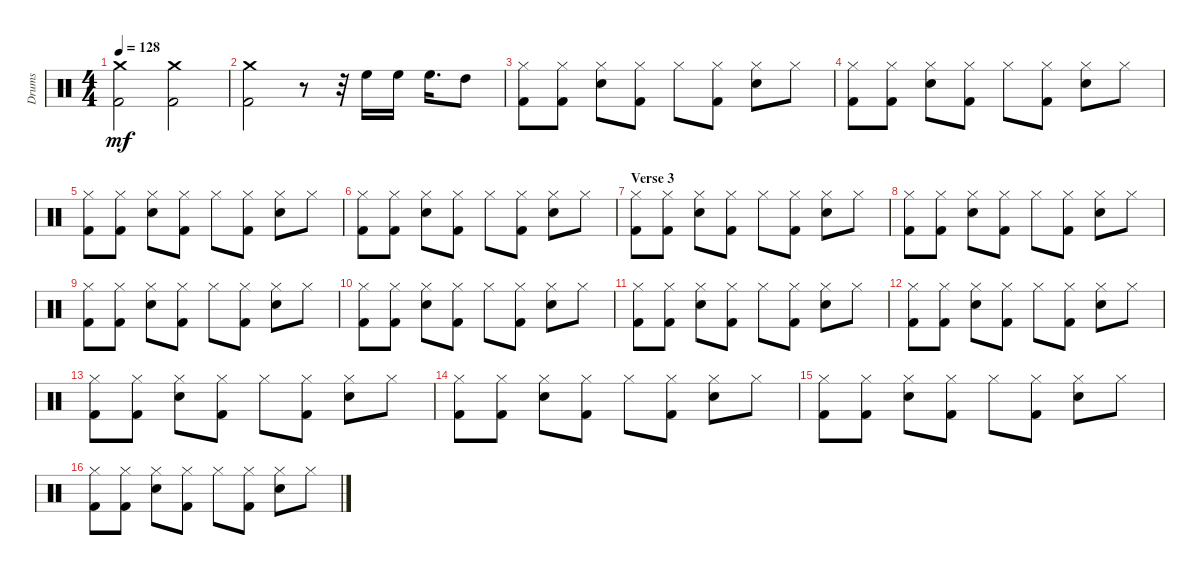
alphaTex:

\track ("Drums" "Drums") {instrument percussion}
\staff {score}
\articulation defaults
\ts (4 4)
\tempo 128
\clef neutral
\ks c
("Crash medium (hit)" "Kick (hit) 2").2{dy mf} ("Crash medium (hit)" "Kick (hit) 2").2 |
("Crash medium (hit)" "Kick (hit) 2").2 r.8 r.32 "High Floor Tom (hit)".16 "High Floor Tom (hit)".16 "High Floor Tom (hit)".16{d} "High Tom (hit)".8 |
("Hi-Hat (closed)" "Kick (hit) 2").8 ("Hi-Hat (closed)" "Kick (hit) 2").8 ("Hi-Hat (closed)" "Snare (hit) 2").8 ("Hi-Hat (closed)" "Kick (hit) 2").8 "Hi-Hat (closed)".8 ("Hi-Hat (closed)" "Kick (hit) 2").8 ("Hi-Hat (closed)" "Snare (hit) 2").8 "Hi-Hat (closed)".8 |
("Hi-Hat (closed)" "Kick (hit) 2").8 ("Hi-Hat (closed)" "Kick (hit) 2").8 ("Hi-Hat (closed)" "Snare (hit) 2").8 ("Hi-Hat (closed)" "Kick (hit) 2").8 "Hi-Hat (closed)".8 ("Hi-Hat (closed)" "Kick (hit) 2").8 ("Hi-Hat (closed)" "Snare (hit) 2").8 "Hi-Hat (closed)".8 |
("Hi-Hat (closed)" "Kick (hit) 2").8 ("Hi-Hat (closed)" "Kick (hit) 2").8 ("Hi-Hat (closed)" "Snare (hit) 2").8 ("Hi-Hat (closed)" "Kick (hit) 2").8 "Hi-Hat (closed)".8 ("Hi-Hat (closed)" "Kick (hit) 2").8 ("Hi-Hat (closed)" "Snare (hit) 2").8 "Hi-Hat (closed)".8 |
("Hi-Hat (closed)" "Kick (hit) 2").8 ("Hi-Hat (closed)" "Kick (hit) 2").8 ("Hi-Hat (closed)" "Snare (hit) 2").8 ("Hi-Hat (closed)" "Kick (hit) 2").8 "Hi-Hat (closed)".8 ("Hi-Hat (closed)" "Kick (hit) 2").8 ("Hi-Hat (closed)" "Snare (hit) 2").8 "Hi-Hat (closed)".8 |
\section ("" "Verse 3")
("Hi-Hat (closed)" "Kick (hit) 2").8 ("Hi-Hat (closed)" "Kick (hit) 2").8 ("Hi-Hat (closed)" "Snare (hit) 2").8 ("Hi-Hat (closed)" "Kick (hit) 2").8 "Hi-Hat (closed)".8 ("Hi-Hat (closed)" "Kick (hit) 2").8 ("Hi-Hat (closed)" "Snare (hit) 2").8 "Hi-Hat (closed)".8 |
("Hi-Hat (closed)" "Kick (hit) 2").8 ("Hi-Hat (closed)" "Kick (hit) 2").8 ("Hi-Hat (closed)" "Snare (hit) 2").8 ("Hi-Hat (closed)" "Kick (hit) 2").8 "Hi-Hat (closed)".8 ("Hi-Hat (closed)" "Kick (hit) 2").8 ("Hi-Hat (closed)" "Snare (hit) 2").8 "Hi-Hat (closed)".8 |
("Hi-Hat (closed)" "Kick (hit) 2").8 ("Hi-Hat (closed)" "Kick (hit) 2").8 ("Hi-Hat (closed)" "Snare (hit) 2").8 ("Hi-Hat (closed)" "Kick (hit) 2").8 "Hi-Hat (closed)".8 ("Hi-Hat (closed)" "Kick (hit) 2").8 ("Hi-Hat (closed)" "Snare (hit) 2").8 "Hi-Hat (closed)".8 |
("Hi-Hat (closed)" "Kick (hit) 2").8 ("Hi-Hat (closed)" "Kick (hit) 2").8 ("Hi-Hat (closed)" "Snare (hit) 2").8 ("Hi-Hat (closed)" "Kick (hit) 2").8 "Hi-Hat (closed)".8 ("Hi-Hat (closed)" "Kick (hit) 2").8 ("Hi-Hat (closed)" "Snare (hit) 2").8 "Hi-Hat (closed)".8 |
("Hi-Hat (closed)" "Kick (hit) 2").8 ("Hi-Hat (closed)" "Kick (hit) 2").8 ("Hi-Hat (closed)" "Snare (hit) 2").8 ("Hi-Hat (closed)" "Kick (hit) 2").8 "Hi-Hat (closed)".8 ("Hi-Hat (closed)" "Kick (hit) 2").8 ("Hi-Hat (closed)" "Snare (hit) 2").8 "Hi-Hat (closed)".8 |
("Hi-Hat (closed)" "Kick (hit) 2").8 ("Hi-Hat (closed)" "Kick (hit) 2").8 ("Hi-Hat (closed)" "Snare (hit) 2").8 ("Hi-Hat (closed)" "Kick (hit) 2").8 "Hi-Hat (closed)".8 ("Hi-Hat (closed)" "Kick (hit) 2").8 ("Hi-Hat (closed)" "Snare (hit) 2").8 "Hi-Hat (closed)".8 |
("Hi-Hat (closed)" "Kick (hit) 2").8 ("Hi-Hat (closed)" "Kick (hit) 2").8 ("Hi-Hat (closed)" "Snare (hit) 2").8 ("Hi-Hat (closed)" "Kick (hit) 2").8 "Hi-Hat (closed)".8 ("Hi-Hat (closed)" "Kick (hit) 2").8 ("Hi-Hat (closed)" "Snare (hit) 2").8 "Hi-Hat (closed)".8 |
("Hi-Hat (closed)" "Kick (hit) 2").8 ("Hi-Hat (closed)" "Kick (hit) 2").8 ("Hi-Hat (closed)" "Snare (hit) 2").8 ("Hi-Hat (closed)" "Kick (hit) 2").8 "Hi-Hat (closed)".8 ("Hi-Hat (closed)" "Kick (hit) 2").8 ("Hi-Hat (closed)" "Snare (hit) 2").8 "Hi-Hat (closed)".8 |
("Hi-Hat (closed)" "Kick (hit) 2").8 ("Hi-Hat (closed)" "Kick (hit) 2").8 ("Hi-Hat (closed)" "Snare (hit) 2").8 ("Hi-Hat (closed)" "Kick (hit) 2").8 "Hi-Hat (closed)".8 ("Hi-Hat (closed)" "Kick (hit) 2").8 ("Hi-Hat (closed)" "Snare (hit) 2").8 "Hi-Hat (closed)".8 |
("Hi-Hat (closed)" "Kick (hit) 2").8 ("Hi-Hat (closed)" "Kick (hit) 2").8 ("Hi-Hat (closed)" "Snare (hit) 2").8 ("Hi-Hat (closed)" "Kick (hit) 2").8 "Hi-Hat (closed)".8 ("Hi-Hat (closed)" "Kick (hit) 2").8 ("Hi-Hat (closed)" "Snare (hit) 2").8 "Hi-Hat (closed)".8
